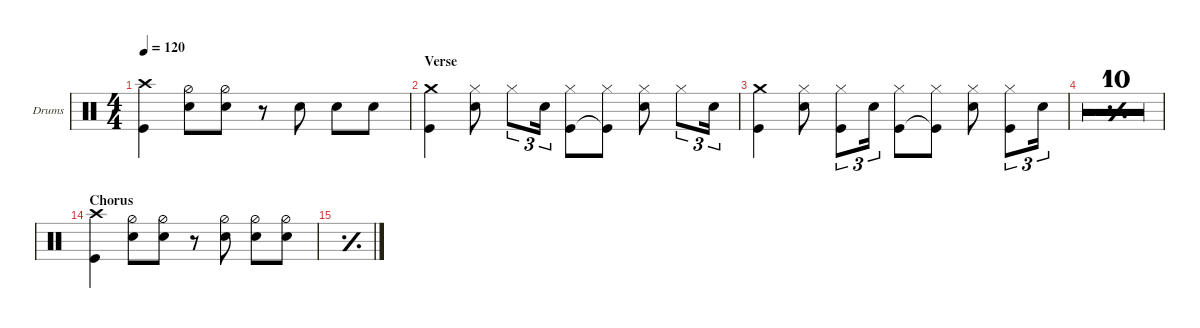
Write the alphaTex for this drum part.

\defaultSystemsLayout 4
\hideDynamics
\bracketExtendMode nobrackets
\firstSystemTrackNameOrientation horizontal
\otherSystemsTrackNameOrientation horizontal
\track ("Drums" "Drums") {multiBarRest instrument percussion}
\staff {score}
\articulation defaults
\ts (4 4)
\tempo 120
\clef neutral
\ks c
("Crash high (hit)" "Kick (hit)").4{dy mf} ("Snare (hit) 2" "Hi-Hat (half)").8 ("Snare (hit) 2" "Hi-Hat (half)").8 r.8 "Snare (hit) 2".8 "Snare (hit) 2".8 "Snare (hit) 2".8 |
\section ("" "Verse")
("Kick (hit)" "Crash medium (hit)").4 ("Snare (hit) 2" "Hi-Hat (closed)").8 "Hi-Hat (closed)".8{tu (3 2)} "Snare (hit) 2".16{tu (3 2)} ("Kick (hit)" "Hi-Hat (closed)").8 ("Kick (hit)"{t} "Hi-Hat (closed)").8 ("Snare (hit) 2" "Hi-Hat (closed)").8 "Hi-Hat (closed)".8{tu (3 2)} "Snare (hit) 2".16{tu (3 2)} |
("Kick (hit)" "Crash medium (hit)").4 ("Snare (hit) 2" "Hi-Hat (closed)").8 ("Hi-Hat (closed)" "Kick (hit)").8{tu (3 2)} "Snare (hit) 2".16{tu (3 2)} ("Kick (hit)" "Hi-Hat (closed)").8 ("Kick (hit)"{t} "Hi-Hat (closed)").8 ("Snare (hit) 2" "Hi-Hat (closed)").8 ("Hi-Hat (closed)" "Kick (hit)").8{tu (3 2)} "Snare (hit) 2".16{tu (3 2)} |
\simile simple
|
|
|
|
|
|
|
|
|
|
\section ("" "Chorus")
\simile none
("Crash high (hit)" "Kick (hit)").4 ("Snare (hit) 2" "Hi-Hat (half)").8 ("Snare (hit) 2" "Hi-Hat (half)").8 r.8 ("Snare (hit) 2" "Hi-Hat (half)").8 ("Snare (hit) 2" "Hi-Hat (half)").8 ("Snare (hit) 2" "Hi-Hat (half)").8 |
\simile simple
